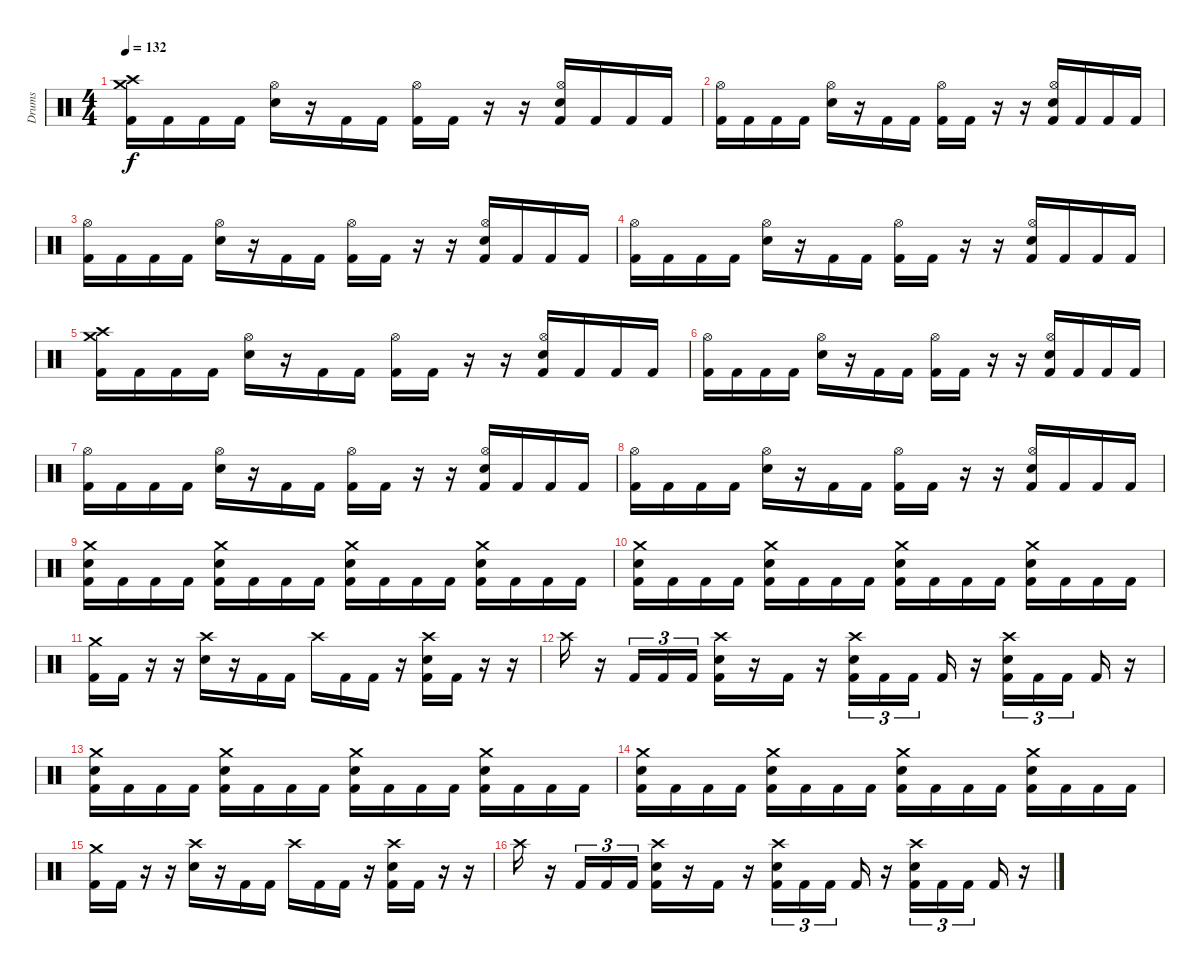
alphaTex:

\track ("Drums" "Drums") {instrument percussion}
\staff {score}
\articulation defaults
\ts (4 4)
\tempo 132
\clef neutral
\ks c
("Crash medium (hit)" "Crash high (hit)" "Kick (hit) 2").16{dy f} "Kick (hit) 2".16 "Kick (hit) 2".16 "Kick (hit) 2".16 ("Hi-Hat (open)" "Electric Snare (hit)").16 r.16 "Kick (hit) 2".16 "Kick (hit) 2".16 ("Hi-Hat (open)" "Kick (hit) 2").16 "Kick (hit) 2".16 r.16 r.16 ("Hi-Hat (open)" "Electric Snare (hit)" "Kick (hit) 2").16 "Kick (hit) 2".16 "Kick (hit) 2".16 "Kick (hit) 2".16 |
("Hi-Hat (open)" "Kick (hit) 2").16 "Kick (hit) 2".16 "Kick (hit) 2".16 "Kick (hit) 2".16 ("Hi-Hat (open)" "Electric Snare (hit)").16 r.16 "Kick (hit) 2".16 "Kick (hit) 2".16 ("Hi-Hat (open)" "Kick (hit) 2").16 "Kick (hit) 2".16 r.16 r.16 ("Hi-Hat (open)" "Electric Snare (hit)" "Kick (hit) 2").16 "Kick (hit) 2".16 "Kick (hit) 2".16 "Kick (hit) 2".16 |
("Hi-Hat (open)" "Kick (hit) 2").16 "Kick (hit) 2".16 "Kick (hit) 2".16 "Kick (hit) 2".16 ("Hi-Hat (open)" "Electric Snare (hit)").16 r.16 "Kick (hit) 2".16 "Kick (hit) 2".16 ("Hi-Hat (open)" "Kick (hit) 2").16 "Kick (hit) 2".16 r.16 r.16 ("Hi-Hat (open)" "Electric Snare (hit)" "Kick (hit) 2").16 "Kick (hit) 2".16 "Kick (hit) 2".16 "Kick (hit) 2".16 |
("Hi-Hat (open)" "Kick (hit) 2").16 "Kick (hit) 2".16 "Kick (hit) 2".16 "Kick (hit) 2".16 ("Hi-Hat (open)" "Electric Snare (hit)").16 r.16 "Kick (hit) 2".16 "Kick (hit) 2".16 ("Hi-Hat (open)" "Kick (hit) 2").16 "Kick (hit) 2".16 r.16 r.16 ("Hi-Hat (open)" "Electric Snare (hit)" "Kick (hit) 2").16 "Kick (hit) 2".16 "Kick (hit) 2".16 "Kick (hit) 2".16 |
("Crash medium (hit)" "Crash high (hit)" "Kick (hit) 2").16 "Kick (hit) 2".16 "Kick (hit) 2".16 "Kick (hit) 2".16 ("Hi-Hat (open)" "Electric Snare (hit)").16 r.16 "Kick (hit) 2".16 "Kick (hit) 2".16 ("Hi-Hat (open)" "Kick (hit) 2").16 "Kick (hit) 2".16 r.16 r.16 ("Hi-Hat (open)" "Electric Snare (hit)" "Kick (hit) 2").16 "Kick (hit) 2".16 "Kick (hit) 2".16 "Kick (hit) 2".16 |
("Hi-Hat (open)" "Kick (hit) 2").16 "Kick (hit) 2".16 "Kick (hit) 2".16 "Kick (hit) 2".16 ("Hi-Hat (open)" "Electric Snare (hit)").16 r.16 "Kick (hit) 2".16 "Kick (hit) 2".16 ("Hi-Hat (open)" "Kick (hit) 2").16 "Kick (hit) 2".16 r.16 r.16 ("Hi-Hat (open)" "Electric Snare (hit)" "Kick (hit) 2").16 "Kick (hit) 2".16 "Kick (hit) 2".16 "Kick (hit) 2".16 |
("Hi-Hat (open)" "Kick (hit) 2").16 "Kick (hit) 2".16 "Kick (hit) 2".16 "Kick (hit) 2".16 ("Hi-Hat (open)" "Electric Snare (hit)").16 r.16 "Kick (hit) 2".16 "Kick (hit) 2".16 ("Hi-Hat (open)" "Kick (hit) 2").16 "Kick (hit) 2".16 r.16 r.16 ("Hi-Hat (open)" "Electric Snare (hit)" "Kick (hit) 2").16 "Kick (hit) 2".16 "Kick (hit) 2".16 "Kick (hit) 2".16 |
("Hi-Hat (open)" "Kick (hit) 2").16 "Kick (hit) 2".16 "Kick (hit) 2".16 "Kick (hit) 2".16 ("Hi-Hat (open)" "Electric Snare (hit)").16 r.16 "Kick (hit) 2".16 "Kick (hit) 2".16 ("Hi-Hat (open)" "Kick (hit) 2").16 "Kick (hit) 2".16 r.16 r.16 ("Hi-Hat (open)" "Electric Snare (hit)" "Kick (hit) 2").16 "Kick (hit) 2".16 "Kick (hit) 2".16 "Kick (hit) 2".16 |
("Crash medium (hit)" "Electric Snare (hit)" "Kick (hit) 2").16 "Kick (hit) 2".16 "Kick (hit) 2".16 "Kick (hit) 2".16 ("Crash medium (hit)" "Electric Snare (hit)" "Kick (hit) 2").16 "Kick (hit) 2".16 "Kick (hit) 2".16 "Kick (hit) 2".16 ("Crash medium (hit)" "Electric Snare (hit)" "Kick (hit) 2").16 "Kick (hit) 2".16 "Kick (hit) 2".16 "Kick (hit) 2".16 ("Crash medium (hit)" "Electric Snare (hit)" "Kick (hit) 2").16 "Kick (hit) 2".16 "Kick (hit) 2".16 "Kick (hit) 2".16 |
("Crash medium (hit)" "Electric Snare (hit)" "Kick (hit) 2").16 "Kick (hit) 2".16 "Kick (hit) 2".16 "Kick (hit) 2".16 ("Crash medium (hit)" "Electric Snare (hit)" "Kick (hit) 2").16 "Kick (hit) 2".16 "Kick (hit) 2".16 "Kick (hit) 2".16 ("Crash medium (hit)" "Electric Snare (hit)" "Kick (hit) 2").16 "Kick (hit) 2".16 "Kick (hit) 2".16 "Kick (hit) 2".16 ("Crash medium (hit)" "Electric Snare (hit)" "Kick (hit) 2").16 "Kick (hit) 2".16 "Kick (hit) 2".16 "Kick (hit) 2".16 |
("Crash medium (hit)" "Kick (hit) 2").16 "Kick (hit) 2".16 r.16 r.16 ("Crash high (hit)" "Electric Snare (hit)").16 r.16 "Kick (hit) 2".16 "Kick (hit) 2".16 "Crash high (hit)".16 "Kick (hit) 2".16 "Kick (hit) 2".16 r.16 ("Crash high (hit)" "Electric Snare (hit)" "Kick (hit) 2").16 "Kick (hit) 2".16 r.16 r.16 |
"Crash high (hit)".16 r.16 "Kick (hit) 2".16{tu (3 2)} "Kick (hit) 2".16{tu (3 2)} "Kick (hit) 2".16{tu (3 2)} ("Crash high (hit)" "Electric Snare (hit)" "Kick (hit) 2").16 r.16 "Kick (hit) 2".16 r.16 ("Crash high (hit)" "Electric Snare (hit)" "Kick (hit) 2").16{tu (3 2)} "Kick (hit) 2".16{tu (3 2)} "Kick (hit) 2".16{tu (3 2)} "Kick (hit) 2".16 r.16 ("Crash high (hit)" "Electric Snare (hit)" "Kick (hit) 2").16{tu (3 2)} "Kick (hit) 2".16{tu (3 2)} "Kick (hit) 2".16{tu (3 2)} "Kick (hit) 2".16 r.16 |
("Crash medium (hit)" "Electric Snare (hit)" "Kick (hit) 2").16 "Kick (hit) 2".16 "Kick (hit) 2".16 "Kick (hit) 2".16 ("Crash medium (hit)" "Electric Snare (hit)" "Kick (hit) 2").16 "Kick (hit) 2".16 "Kick (hit) 2".16 "Kick (hit) 2".16 ("Crash medium (hit)" "Electric Snare (hit)" "Kick (hit) 2").16 "Kick (hit) 2".16 "Kick (hit) 2".16 "Kick (hit) 2".16 ("Crash medium (hit)" "Electric Snare (hit)" "Kick (hit) 2").16 "Kick (hit) 2".16 "Kick (hit) 2".16 "Kick (hit) 2".16 |
("Crash medium (hit)" "Electric Snare (hit)" "Kick (hit) 2").16 "Kick (hit) 2".16 "Kick (hit) 2".16 "Kick (hit) 2".16 ("Crash medium (hit)" "Electric Snare (hit)" "Kick (hit) 2").16 "Kick (hit) 2".16 "Kick (hit) 2".16 "Kick (hit) 2".16 ("Crash medium (hit)" "Electric Snare (hit)" "Kick (hit) 2").16 "Kick (hit) 2".16 "Kick (hit) 2".16 "Kick (hit) 2".16 ("Crash medium (hit)" "Electric Snare (hit)" "Kick (hit) 2").16 "Kick (hit) 2".16 "Kick (hit) 2".16 "Kick (hit) 2".16 |
("Crash medium (hit)" "Kick (hit) 2").16 "Kick (hit) 2".16 r.16 r.16 ("Crash high (hit)" "Electric Snare (hit)").16 r.16 "Kick (hit) 2".16 "Kick (hit) 2".16 "Crash high (hit)".16 "Kick (hit) 2".16 "Kick (hit) 2".16 r.16 ("Crash high (hit)" "Electric Snare (hit)" "Kick (hit) 2").16 "Kick (hit) 2".16 r.16 r.16 |
"Crash high (hit)".16 r.16 "Kick (hit) 2".16{tu (3 2)} "Kick (hit) 2".16{tu (3 2)} "Kick (hit) 2".16{tu (3 2)} ("Crash high (hit)" "Electric Snare (hit)" "Kick (hit) 2").16 r.16 "Kick (hit) 2".16 r.16 ("Crash high (hit)" "Electric Snare (hit)" "Kick (hit) 2").16{tu (3 2)} "Kick (hit) 2".16{tu (3 2)} "Kick (hit) 2".16{tu (3 2)} "Kick (hit) 2".16 r.16 ("Crash high (hit)" "Electric Snare (hit)" "Kick (hit) 2").16{tu (3 2)} "Kick (hit) 2".16{tu (3 2)} "Kick (hit) 2".16{tu (3 2)} "Kick (hit) 2".16 r.16
